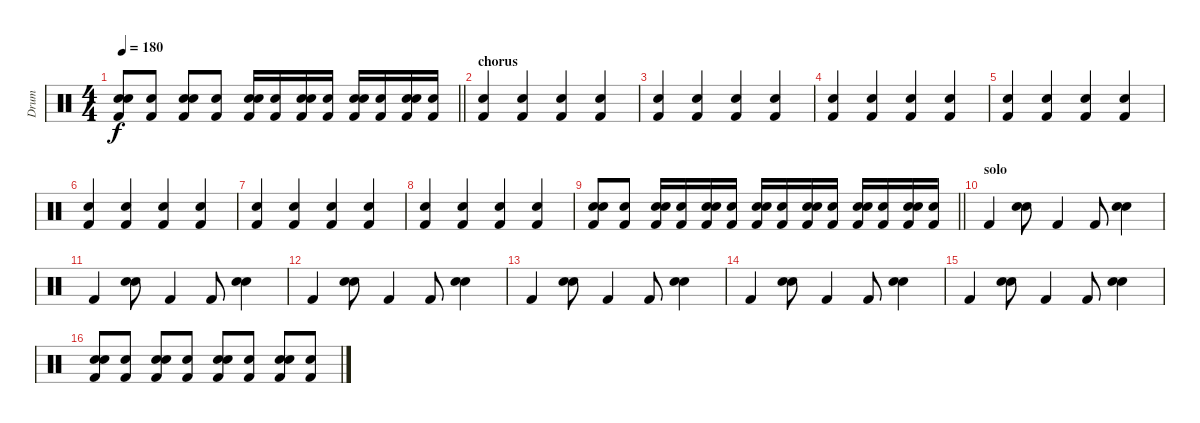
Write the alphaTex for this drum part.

\track ("Drum" "Drum") {instrument percussion}
\staff {score}
\articulation defaults
\ts (4 4)
\tempo 180
\clef neutral
\barLineRight lightlight
\ks c
("Kick (hit) 2" "Electric Snare (hit)" "Snare (hit) 2").8{dy f} ("Kick (hit) 2" "Electric Snare (hit)").8 ("Kick (hit) 2" "Electric Snare (hit)" "Snare (hit) 2").8 ("Kick (hit) 2" "Electric Snare (hit)").8 ("Kick (hit) 2" "Electric Snare (hit)" "Snare (hit) 2").16 ("Kick (hit) 2" "Electric Snare (hit)").16 ("Kick (hit) 2" "Electric Snare (hit)" "Snare (hit) 2").16 ("Kick (hit) 2" "Electric Snare (hit)").16 ("Kick (hit) 2" "Electric Snare (hit)" "Snare (hit) 2").16 ("Kick (hit) 2" "Electric Snare (hit)").16 ("Kick (hit) 2" "Electric Snare (hit)" "Snare (hit) 2").16 ("Kick (hit) 2" "Electric Snare (hit)").16 |
\section ("" "chorus")
("Electric Snare (hit)" "Kick (hit) 2").4 ("Electric Snare (hit)" "Kick (hit) 2").4 ("Electric Snare (hit)" "Kick (hit) 2").4 ("Electric Snare (hit)" "Kick (hit) 2").4 |
("Electric Snare (hit)" "Kick (hit) 2").4 ("Electric Snare (hit)" "Kick (hit) 2").4 ("Electric Snare (hit)" "Kick (hit) 2").4 ("Electric Snare (hit)" "Kick (hit) 2").4 |
("Electric Snare (hit)" "Kick (hit) 2").4 ("Electric Snare (hit)" "Kick (hit) 2").4 ("Electric Snare (hit)" "Kick (hit) 2").4 ("Electric Snare (hit)" "Kick (hit) 2").4 |
("Electric Snare (hit)" "Kick (hit) 2").4 ("Electric Snare (hit)" "Kick (hit) 2").4 ("Electric Snare (hit)" "Kick (hit) 2").4 ("Electric Snare (hit)" "Kick (hit) 2").4 |
("Electric Snare (hit)" "Kick (hit) 2").4 ("Electric Snare (hit)" "Kick (hit) 2").4 ("Electric Snare (hit)" "Kick (hit) 2").4 ("Electric Snare (hit)" "Kick (hit) 2").4 |
("Electric Snare (hit)" "Kick (hit) 2").4 ("Electric Snare (hit)" "Kick (hit) 2").4 ("Electric Snare (hit)" "Kick (hit) 2").4 ("Electric Snare (hit)" "Kick (hit) 2").4 |
("Electric Snare (hit)" "Kick (hit) 2").4 ("Electric Snare (hit)" "Kick (hit) 2").4 ("Electric Snare (hit)" "Kick (hit) 2").4 ("Electric Snare (hit)" "Kick (hit) 2").4 |
\barLineRight lightlight
("Kick (hit) 2" "Electric Snare (hit)" "Snare (hit) 2").8 ("Kick (hit) 2" "Electric Snare (hit)").8 ("Kick (hit) 2" "Electric Snare (hit)" "Snare (hit) 2").16 ("Kick (hit) 2" "Electric Snare (hit)").16 ("Kick (hit) 2" "Electric Snare (hit)" "Snare (hit) 2").16 ("Kick (hit) 2" "Electric Snare (hit)").16 ("Kick (hit) 2" "Electric Snare (hit)" "Snare (hit) 2").16 ("Kick (hit) 2" "Electric Snare (hit)").16 ("Kick (hit) 2" "Electric Snare (hit)" "Snare (hit) 2").16 ("Kick (hit) 2" "Electric Snare (hit)").16 ("Kick (hit) 2" "Electric Snare (hit)" "Snare (hit) 2").16 ("Kick (hit) 2" "Electric Snare (hit)").16 ("Kick (hit) 2" "Electric Snare (hit)" "Snare (hit) 2").16 ("Kick (hit) 2" "Electric Snare (hit)").16 |
\section ("" "solo")
"Kick (hit) 2".4 ("Snare (hit) 2" "Electric Snare (hit)").8 "Kick (hit) 2".4 "Kick (hit) 2".8 ("Snare (hit) 2" "Electric Snare (hit)").4 |
"Kick (hit) 2".4 ("Snare (hit) 2" "Electric Snare (hit)").8 "Kick (hit) 2".4 "Kick (hit) 2".8 ("Snare (hit) 2" "Electric Snare (hit)").4 |
"Kick (hit) 2".4 ("Snare (hit) 2" "Electric Snare (hit)").8 "Kick (hit) 2".4 "Kick (hit) 2".8 ("Snare (hit) 2" "Electric Snare (hit)").4 |
"Kick (hit) 2".4 ("Snare (hit) 2" "Electric Snare (hit)").8 "Kick (hit) 2".4 "Kick (hit) 2".8 ("Snare (hit) 2" "Electric Snare (hit)").4 |
"Kick (hit) 2".4 ("Snare (hit) 2" "Electric Snare (hit)").8 "Kick (hit) 2".4 "Kick (hit) 2".8 ("Snare (hit) 2" "Electric Snare (hit)").4 |
"Kick (hit) 2".4 ("Snare (hit) 2" "Electric Snare (hit)").8 "Kick (hit) 2".4 "Kick (hit) 2".8 ("Snare (hit) 2" "Electric Snare (hit)").4 |
("Kick (hit) 2" "Electric Snare (hit)" "Snare (hit) 2").8 ("Kick (hit) 2" "Electric Snare (hit)").8 ("Kick (hit) 2" "Electric Snare (hit)" "Snare (hit) 2").8 ("Kick (hit) 2" "Electric Snare (hit)").8 ("Kick (hit) 2" "Electric Snare (hit)" "Snare (hit) 2").8 ("Kick (hit) 2" "Electric Snare (hit)").8 ("Kick (hit) 2" "Electric Snare (hit)" "Snare (hit) 2").8 ("Kick (hit) 2" "Electric Snare (hit)").8
